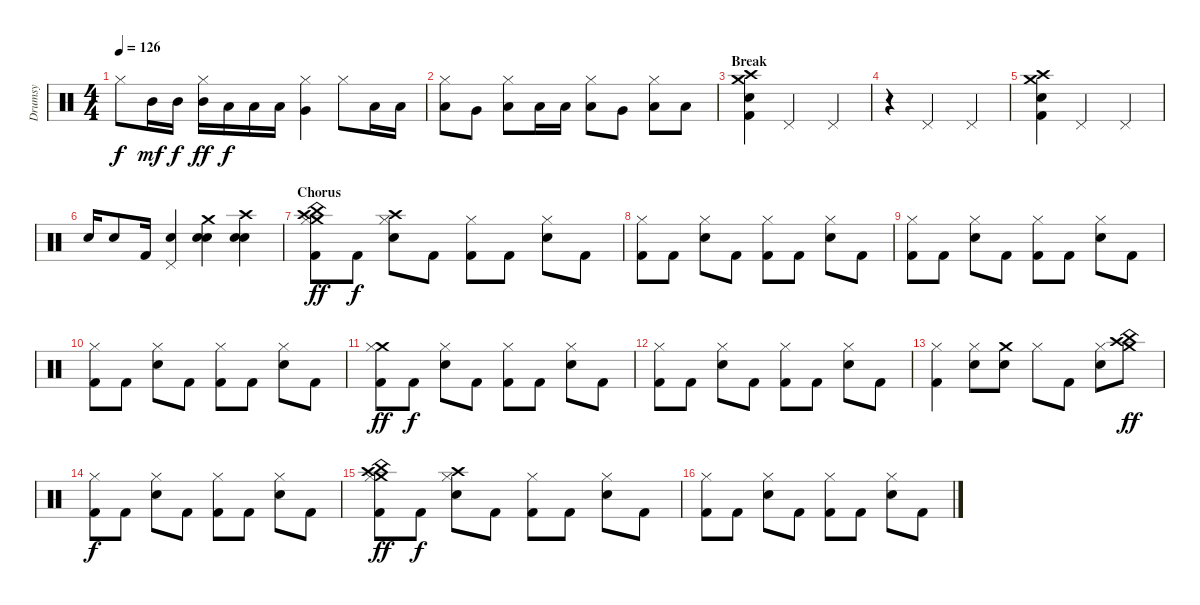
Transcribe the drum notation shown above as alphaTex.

\track ("Drumsy" "Drumsy") {instrument percussion}
\staff {score}
\articulation defaults
\ts (4 4)
\tempo 126
\clef neutral
\ks c "Hi-Hat (closed)".8{dy f} "Mid Tom (hit)".16{dy mf} "Mid Tom (hit)".16{dy f}
("Hi-Hat (closed)" "Mid Tom (hit)").16{dy ff} "Low Tom (hit)".16{dy f} "Low Tom (hit)".16 "Low Tom (hit)".16 ("Hi-Hat (closed)" "Very Low Tom (hit)").4 "Hi-Hat (closed)".8 "Low Tom (hit)".16 "Low Tom (hit)".16 |
("Hi-Hat (closed)" "Low Tom (hit)").8 "Very Low Tom (hit)".8 ("Hi-Hat (closed)" "Low Tom (hit)").8 "Low Tom (hit)".16 "Low Tom (hit)".16 ("Hi-Hat (closed)" "Low Tom (hit)").8 "Very Low Tom (hit)".8 ("Hi-Hat (closed)" "Low Tom (hit)").8 "Low Floor Tom (hit)".8 |
\section ("" "Break")
("Crash medium (hit)" "Crash high (hit)" "Electric Snare (hit)" "Kick (hit) 2").4 "Pedal Hi-Hat (hit)".2 "Pedal Hi-Hat (hit)".4 |
r.4 "Pedal Hi-Hat (hit)".2 "Pedal Hi-Hat (hit)".4 |
("Crash medium (hit)" "Crash high (hit)" "Electric Snare (hit)" "Kick (hit) 2").4 "Pedal Hi-Hat (hit)".2 "Pedal Hi-Hat (hit)".4 |
"Snare (hit) 2".16 "Electric Snare (hit)".8 "Kick (hit) 2".16 ("Pedal Hi-Hat (hit)" "Electric Snare (hit)").4 ("Crash medium (hit)" "Snare (hit) 2" "Electric Snare (hit)").4 ("Crash high (hit)" "Snare (hit) 2" "Electric Snare (hit)").4 |
\section ("" "Chorus")
("Crash medium (hit)" "Hi-Hat (closed)" "Crash high (hit)" "China (hit)" "Kick (hit) 2").8{dy ff} "Kick (hit) 2".8{dy f} ("Crash high (hit)" "Hi-Hat (closed)" "Electric Snare (hit)").8 "Kick (hit) 2".8 ("Hi-Hat (closed)" "Kick (hit) 2").8 "Kick (hit) 2".8 ("Hi-Hat (closed)" "Electric Snare (hit)").8 "Kick (hit) 2".8 |
("Hi-Hat (closed)" "Kick (hit) 2").8 "Kick (hit) 2".8 ("Hi-Hat (closed)" "Electric Snare (hit)").8 "Kick (hit) 2".8 ("Hi-Hat (closed)" "Kick (hit) 2").8 "Kick (hit) 2".8 ("Hi-Hat (closed)" "Electric Snare (hit)").8 "Kick (hit) 2".8 |
("Hi-Hat (closed)" "Kick (hit) 2").8 "Kick (hit) 2".8 ("Hi-Hat (closed)" "Electric Snare (hit)").8 "Kick (hit) 2".8 ("Hi-Hat (closed)" "Kick (hit) 2").8 "Kick (hit) 2".8 ("Hi-Hat (closed)" "Electric Snare (hit)").8 "Kick (hit) 2".8 |
("Hi-Hat (closed)" "Kick (hit) 2").8 "Kick (hit) 2".8 ("Hi-Hat (closed)" "Electric Snare (hit)").8 "Kick (hit) 2".8 ("Hi-Hat (closed)" "Kick (hit) 2").8 "Kick (hit) 2".8 ("Hi-Hat (closed)" "Electric Snare (hit)").8 "Kick (hit) 2".8 |
("Crash medium (hit)" "Hi-Hat (closed)" "Kick (hit) 2").8{dy ff} "Kick (hit) 2".8{dy f} ("Hi-Hat (closed)" "Electric Snare (hit)").8 "Kick (hit) 2".8 ("Hi-Hat (closed)" "Kick (hit) 2").8 "Kick (hit) 2".8 ("Hi-Hat (closed)" "Electric Snare (hit)").8 "Kick (hit) 2".8 |
("Hi-Hat (closed)" "Kick (hit) 2").8 "Kick (hit) 2".8 ("Hi-Hat (closed)" "Electric Snare (hit)").8 "Kick (hit) 2".8 ("Hi-Hat (closed)" "Kick (hit) 2").8 "Kick (hit) 2".8 ("Hi-Hat (closed)" "Electric Snare (hit)").8 "Kick (hit) 2".8 |
("Hi-Hat (closed)" "Kick (hit) 2").4 ("Hi-Hat (closed)" "Electric Snare (hit)").8 ("Crash medium (hit)" "Snare (hit) 2").8 "Hi-Hat (closed)".8 "Kick (hit) 2".8 ("Hi-Hat (closed)" "Electric Snare (hit)").8 ("Crash high (hit)" "Crash medium (hit)" "China (hit)").8{dy ff} |
("Hi-Hat (closed)" "Kick (hit) 2").8{dy f} "Kick (hit) 2".8 ("Hi-Hat (closed)" "Electric Snare (hit)").8 "Kick (hit) 2".8 ("Hi-Hat (closed)" "Kick (hit) 2").8 "Kick (hit) 2".8 ("Hi-Hat (closed)" "Electric Snare (hit)").8 "Kick (hit) 2".8 |
\section ("" "")
("Crash medium (hit)" "Hi-Hat (closed)" "Crash high (hit)" "China (hit)" "Kick (hit) 2").8{dy ff} "Kick (hit) 2".8{dy f} ("Crash high (hit)" "Hi-Hat (closed)" "Electric Snare (hit)").8 "Kick (hit) 2".8 ("Hi-Hat (closed)" "Kick (hit) 2").8 "Kick (hit) 2".8 ("Hi-Hat (closed)" "Electric Snare (hit)").8 "Kick (hit) 2".8 |
("Hi-Hat (closed)" "Kick (hit) 2").8 "Kick (hit) 2".8 ("Hi-Hat (closed)" "Electric Snare (hit)").8 "Kick (hit) 2".8 ("Hi-Hat (closed)" "Kick (hit) 2").8 "Kick (hit) 2".8 ("Hi-Hat (closed)" "Electric Snare (hit)").8 "Kick (hit) 2".8
